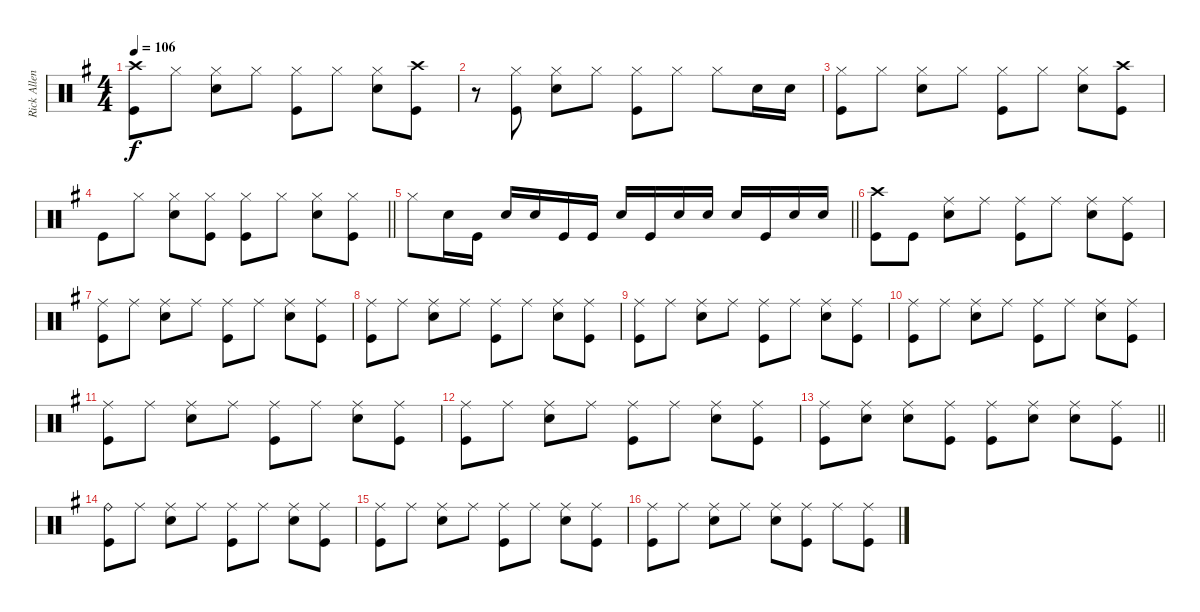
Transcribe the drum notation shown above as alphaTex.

\track ("Rick Allen \"Thundergood\"" "Rick Allen") {instrument percussion}
\staff {score}
\articulation defaults
\ts (4 4)
\tempo 106
\clef neutral
\ks eminor
("Crash high (hit)" "Kick (hit)").8{dy f} "Hi-Hat (closed)".8 ("Hi-Hat (closed)" "Snare (hit) 2").8 "Hi-Hat (closed)".8 ("Hi-Hat (closed)" "Kick (hit)").8 "Hi-Hat (closed)".8 ("Hi-Hat (closed)" "Snare (hit) 2").8 ("Crash high (hit)" "Kick (hit)").8 |
r.8 ("Hi-Hat (closed)" "Kick (hit)").8 ("Hi-Hat (closed)" "Snare (hit) 2").8 "Hi-Hat (closed)".8 ("Hi-Hat (closed)" "Kick (hit)").8 "Hi-Hat (closed)".8 "Hi-Hat (closed)".8 "Snare (hit) 2".16 "Snare (hit) 2".16 |
("Hi-Hat (closed)" "Kick (hit)").8 "Hi-Hat (closed)".8 ("Hi-Hat (closed)" "Snare (hit) 2").8 "Hi-Hat (closed)".8 ("Hi-Hat (closed)" "Kick (hit)").8 "Hi-Hat (closed)".8 ("Hi-Hat (closed)" "Snare (hit) 2").8 ("Crash high (hit)" "Kick (hit)").8 |
\barLineRight lightlight "Kick (hit)".8 "Hi-Hat (closed)".8
("Hi-Hat (closed)" "Snare (hit) 2").8 ("Hi-Hat (closed)" "Kick (hit)").8 ("Hi-Hat (closed)" "Kick (hit)").8 "Hi-Hat (closed)".8 ("Hi-Hat (closed)" "Snare (hit) 2").8 ("Hi-Hat (closed)" "Kick (hit)").8 |
\barLineRight lightlight "Hi-Hat (closed)".8 "Snare (hit) 2".16 "Kick (hit)".16 "Snare (hit) 2".16 "Snare (hit) 2".16 "Kick (hit)".16 "Kick (hit)".16 "Snare (hit) 2".16 "Kick (hit)".16 "Snare (hit) 2".16 "Snare (hit) 2".16 "Snare (hit) 2".16 "Kick (hit)".16 "Snare (hit) 2".16 "Snare (hit) 2".16
|
("Crash high (hit)" "Kick (hit)").8 "Kick (hit)".8 ("Ride (middle)" "Snare (hit) 2").8 "Ride (middle)".8 ("Ride (middle)" "Kick (hit)").8 "Ride (middle)".8 ("Ride (middle)" "Snare (hit) 2").8 ("Ride (middle)" "Kick (hit)").8 |
("Ride (middle)" "Kick (hit)").8 "Ride (middle)".8 ("Ride (middle)" "Snare (hit) 2").8 "Ride (middle)".8 ("Ride (middle)" "Kick (hit)").8 "Ride (middle)".8 ("Ride (middle)" "Snare (hit) 2").8 ("Ride (middle)" "Kick (hit)").8 |
("Ride (middle)" "Kick (hit)").8 "Ride (middle)".8 ("Ride (middle)" "Snare (hit) 2").8 "Ride (middle)".8 ("Ride (middle)" "Kick (hit)").8 "Ride (middle)".8 ("Ride (middle)" "Snare (hit) 2").8 ("Ride (middle)" "Kick (hit)").8 |
("Ride (middle)" "Kick (hit)").8 "Ride (middle)".8 ("Ride (middle)" "Snare (hit) 2").8 "Ride (middle)".8 ("Ride (middle)" "Kick (hit)").8 "Ride (middle)".8 ("Ride (middle)" "Snare (hit) 2").8 ("Ride (middle)" "Kick (hit)").8 |
("Ride (middle)" "Kick (hit)").8 "Ride (middle)".8 ("Ride (middle)" "Snare (hit) 2").8 "Ride (middle)".8 ("Ride (middle)" "Kick (hit)").8 "Ride (middle)".8 ("Ride (middle)" "Snare (hit) 2").8 ("Ride (middle)" "Kick (hit)").8 |
("Ride (middle)" "Kick (hit)").8 "Ride (middle)".8 ("Ride (middle)" "Snare (hit) 2").8 "Ride (middle)".8 ("Ride (middle)" "Kick (hit)").8 "Ride (middle)".8 ("Ride (middle)" "Snare (hit) 2").8 ("Ride (middle)" "Kick (hit)").8 |
("Ride (middle)" "Kick (hit)").8 "Ride (middle)".8 ("Ride (middle)" "Snare (hit) 2").8 "Ride (middle)".8 ("Ride (middle)" "Kick (hit)").8 "Ride (middle)".8 ("Ride (middle)" "Snare (hit) 2").8 ("Ride (middle)" "Kick (hit)").8 |
\barLineRight lightlight
("Ride (middle)" "Kick (hit)").8 ("Ride (middle)" "Snare (hit) 2").8 ("Ride (middle)" "Snare (hit) 2").8 ("Ride (middle)" "Kick (hit)").8 ("Ride (middle)" "Kick (hit)").8 ("Ride (middle)" "Snare (hit) 2").8 ("Ride (middle)" "Snare (hit) 2").8 ("Ride (middle)" "Kick (hit)").8 |
("Ride (bell)" "Kick (hit)").8 "Ride (middle)".8 ("Ride (middle)" "Snare (hit) 2").8 "Ride (middle)".8 ("Ride (middle)" "Kick (hit)").8 "Ride (middle)".8 ("Ride (middle)" "Snare (hit) 2").8 ("Ride (middle)" "Kick (hit)").8 |
("Ride (middle)" "Kick (hit)").8 "Ride (middle)".8 ("Ride (middle)" "Snare (hit) 2").8 "Ride (middle)".8 ("Ride (middle)" "Kick (hit)").8 "Ride (middle)".8 ("Ride (middle)" "Snare (hit) 2").8 ("Ride (middle)" "Kick (hit)").8 |
("Ride (middle)" "Kick (hit)").8 "Ride (middle)".8 ("Ride (middle)" "Snare (hit) 2").8 "Ride (middle)".8 ("Ride (middle)" "Snare (hit) 2").8 ("Ride (middle)" "Kick (hit)").8 "Ride (middle)".8 ("Ride (middle)" "Kick (hit)").8
